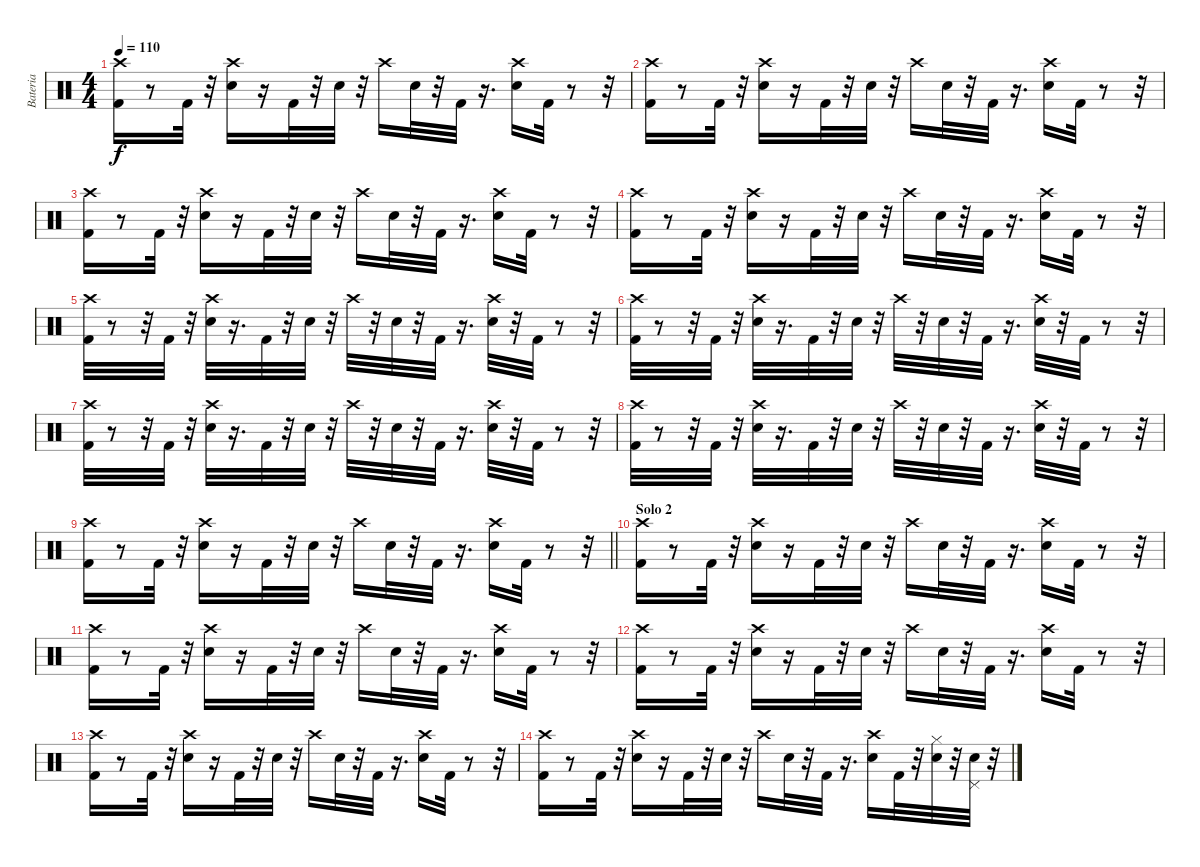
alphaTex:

\track ("Bateria" "Bateria") {instrument percussion}
\staff {score}
\articulation defaults
\ts (4 4)
\tempo 110
\clef neutral
\ks c
("Kick (hit) 2" "Crash high (hit)").16{dy f} r.8 "Kick (hit) 2".32 r.32 ("Snare (hit) 2" "Crash high (hit)").16 r.16 "Kick (hit) 2".32 r.32 "Snare (hit) 2".32 r.32 "Crash high (hit)".16 "Snare (hit) 2".32 r.32 "Kick (hit) 2".32 r.16{d} ("Snare (hit) 2" "Crash high (hit)").16 "Kick (hit) 2".32 r.8 r.32 |
("Kick (hit) 2" "Crash high (hit)").16 r.8 "Kick (hit) 2".32 r.32 ("Snare (hit) 2" "Crash high (hit)").16 r.16 "Kick (hit) 2".32 r.32 "Snare (hit) 2".32 r.32 "Crash high (hit)".16 "Snare (hit) 2".32 r.32 "Kick (hit) 2".32 r.16{d} ("Snare (hit) 2" "Crash high (hit)").16 "Kick (hit) 2".32 r.8 r.32 |
("Kick (hit) 2" "Crash high (hit)").16 r.8 "Kick (hit) 2".32 r.32 ("Snare (hit) 2" "Crash high (hit)").16 r.16 "Kick (hit) 2".32 r.32 "Snare (hit) 2".32 r.32 "Crash high (hit)".16 "Snare (hit) 2".32 r.32 "Kick (hit) 2".32 r.16{d} ("Snare (hit) 2" "Crash high (hit)").16 "Kick (hit) 2".32 r.8 r.32 |
("Crash high (hit)" "Kick (hit) 2").16 r.8 "Kick (hit) 2".32 r.32 ("Crash high (hit)" "Snare (hit) 2").16 r.16 "Kick (hit) 2".32 r.32 "Snare (hit) 2".32 r.32 "Crash high (hit)".16 "Snare (hit) 2".32 r.32 "Kick (hit) 2".32 r.16{d} ("Crash high (hit)" "Snare (hit) 2").16 "Kick (hit) 2".32 r.8 r.32 |
("Kick (hit) 2" "Crash high (hit)").32 r.8 r.32 "Kick (hit) 2".32 r.32 ("Crash high (hit)" "Snare (hit) 2").32 r.16{d} "Kick (hit) 2".32 r.32 "Snare (hit) 2".32 r.32 "Crash high (hit)".32 r.32 "Snare (hit) 2".32 r.32 "Kick (hit) 2".32 r.16{d} ("Crash high (hit)" "Snare (hit) 2").32 r.32 "Kick (hit) 2".32 r.8 r.32 |
("Crash high (hit)" "Kick (hit) 2").32 r.8 r.32 "Kick (hit) 2".32 r.32 ("Crash high (hit)" "Snare (hit) 2").32 r.16{d} "Kick (hit) 2".32 r.32 "Snare (hit) 2".32 r.32 "Crash high (hit)".32 r.32 "Snare (hit) 2".32 r.32 "Kick (hit) 2".32 r.16{d} ("Snare (hit) 2" "Crash high (hit)").32 r.32 "Kick (hit) 2".32 r.8 r.32 |
("Kick (hit) 2" "Crash high (hit)").32 r.8 r.32 "Kick (hit) 2".32 r.32 ("Snare (hit) 2" "Crash high (hit)").32 r.16{d} "Kick (hit) 2".32 r.32 "Snare (hit) 2".32 r.32 "Crash high (hit)".32 r.32 "Snare (hit) 2".32 r.32 "Kick (hit) 2".32 r.16{d} ("Snare (hit) 2" "Crash high (hit)").32 r.32 "Kick (hit) 2".32 r.8 r.32 |
("Crash high (hit)" "Kick (hit) 2").32 r.8 r.32 "Kick (hit) 2".32 r.32 ("Snare (hit) 2" "Crash high (hit)").32 r.16{d} "Kick (hit) 2".32 r.32 "Snare (hit) 2".32 r.32 "Crash high (hit)".32 r.32 "Snare (hit) 2".32 r.32 "Kick (hit) 2".32 r.16{d} ("Crash high (hit)" "Snare (hit) 2").32 r.32 "Kick (hit) 2".32 r.8 r.32 |
\barLineRight lightlight
("Kick (hit) 2" "Crash high (hit)").16 r.8 "Kick (hit) 2".32 r.32 ("Crash high (hit)" "Snare (hit) 2").16 r.16 "Kick (hit) 2".32 r.32 "Snare (hit) 2".32 r.32 "Crash high (hit)".16 "Snare (hit) 2".32 r.32 "Kick (hit) 2".32 r.16{d} ("Snare (hit) 2" "Crash high (hit)").16 "Kick (hit) 2".32 r.8 r.32 |
\section ("" "Solo 2")
("Kick (hit) 2" "Crash high (hit)").16 r.8 "Kick (hit) 2".32 r.32 ("Snare (hit) 2" "Crash high (hit)").16 r.16 "Kick (hit) 2".32 r.32 "Snare (hit) 2".32 r.32 "Crash high (hit)".16 "Snare (hit) 2".32 r.32 "Kick (hit) 2".32 r.16{d} ("Crash high (hit)" "Snare (hit) 2").16 "Kick (hit) 2".32 r.8 r.32 |
("Kick (hit) 2" "Crash high (hit)").16 r.8 "Kick (hit) 2".32 r.32 ("Snare (hit) 2" "Crash high (hit)").16 r.16 "Kick (hit) 2".32 r.32 "Snare (hit) 2".32 r.32 "Crash high (hit)".16 "Snare (hit) 2".32 r.32 "Kick (hit) 2".32 r.16{d} ("Snare (hit) 2" "Crash high (hit)").16 "Kick (hit) 2".32 r.8 r.32 |
("Crash high (hit)" "Kick (hit) 2").16 r.8 "Kick (hit) 2".32 r.32 ("Snare (hit) 2" "Crash high (hit)").16 r.16 "Kick (hit) 2".32 r.32 "Snare (hit) 2".32 r.32 "Crash high (hit)".16 "Snare (hit) 2".32 r.32 "Kick (hit) 2".32 r.16{d} ("Crash high (hit)" "Snare (hit) 2").16 "Kick (hit) 2".32 r.8 r.32 |
("Crash high (hit)" "Kick (hit) 2").16 r.8 "Kick (hit) 2".32 r.32 ("Snare (hit) 2" "Crash high (hit)").16 r.16 "Kick (hit) 2".32 r.32 "Snare (hit) 2".32 r.32 "Crash high (hit)".16 "Snare (hit) 2".32 r.32 "Kick (hit) 2".32 r.16{d} ("Snare (hit) 2" "Crash high (hit)").16 "Kick (hit) 2".32 r.8 r.32 |
("Crash high (hit)" "Kick (hit) 2").16 r.8 "Kick (hit) 2".32 r.32 ("Snare (hit) 2" "Crash high (hit)").16 r.16 "Kick (hit) 2".32 r.32 "Snare (hit) 2".32 r.32 "Crash high (hit)".16 "Snare (hit) 2".32 r.32 "Kick (hit) 2".32 r.16{d} ("Crash high (hit)" "Snare (hit) 2").16 "Kick (hit) 2".32 r.32 ("Hi-Hat (closed)" "Snare (hit) 2").32 r.32 ("Snare (hit) 2" "Pedal Hi-Hat (hit)").32 r.32
